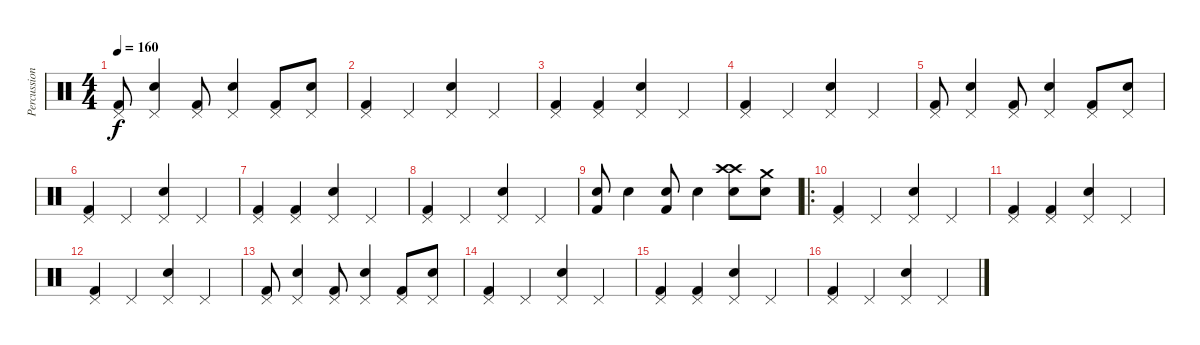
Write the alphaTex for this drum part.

\track ("Percussion" "Percussion") {instrument percussion}
\staff {score}
\articulation defaults
\ts (4 4)
\tempo 160
\clef neutral
\ks c
("Kick (hit) 2" "Pedal Hi-Hat (hit)").8{dy f} ("Snare (hit) 2" "Pedal Hi-Hat (hit)").4 ("Kick (hit) 2" "Pedal Hi-Hat (hit)").8 ("Snare (hit) 2" "Pedal Hi-Hat (hit)").4 ("Kick (hit) 2" "Pedal Hi-Hat (hit)").8 ("Snare (hit) 2" "Pedal Hi-Hat (hit)").8 |
("Kick (hit) 2" "Pedal Hi-Hat (hit)").4 "Pedal Hi-Hat (hit)".4 ("Snare (hit) 2" "Pedal Hi-Hat (hit)").4 "Pedal Hi-Hat (hit)".4 |
("Kick (hit) 2" "Pedal Hi-Hat (hit)").4 ("Kick (hit) 2" "Pedal Hi-Hat (hit)").4 ("Snare (hit) 2" "Pedal Hi-Hat (hit)").4 "Pedal Hi-Hat (hit)".4 |
("Kick (hit) 2" "Pedal Hi-Hat (hit)").4 "Pedal Hi-Hat (hit)".4 ("Snare (hit) 2" "Pedal Hi-Hat (hit)").4 "Pedal Hi-Hat (hit)".4 |
("Kick (hit) 2" "Pedal Hi-Hat (hit)").8 ("Snare (hit) 2" "Pedal Hi-Hat (hit)").4 ("Kick (hit) 2" "Pedal Hi-Hat (hit)").8 ("Snare (hit) 2" "Pedal Hi-Hat (hit)").4 ("Kick (hit) 2" "Pedal Hi-Hat (hit)").8 ("Snare (hit) 2" "Pedal Hi-Hat (hit)").8 |
("Kick (hit) 2" "Pedal Hi-Hat (hit)").4 "Pedal Hi-Hat (hit)".4 ("Snare (hit) 2" "Pedal Hi-Hat (hit)").4 "Pedal Hi-Hat (hit)".4 |
("Kick (hit) 2" "Pedal Hi-Hat (hit)").4 ("Kick (hit) 2" "Pedal Hi-Hat (hit)").4 ("Snare (hit) 2" "Pedal Hi-Hat (hit)").4 "Pedal Hi-Hat (hit)".4 |
("Kick (hit) 2" "Pedal Hi-Hat (hit)").4 "Pedal Hi-Hat (hit)".4 ("Snare (hit) 2" "Pedal Hi-Hat (hit)").4 "Pedal Hi-Hat (hit)".4 |
("Snare (hit) 2" "Kick (hit) 2").8 "Snare (hit) 2".4 ("Snare (hit) 2" "Kick (hit) 2").8 "Snare (hit) 2".4 ("Crash high (hit)" "Snare (hit) 2" "Crash high (hit)").8 ("Snare (hit) 2" "Crash medium (hit)").8 |
\ro
("Kick (hit) 2" "Pedal Hi-Hat (hit)").4 "Pedal Hi-Hat (hit)".4 ("Snare (hit) 2" "Pedal Hi-Hat (hit)").4 "Pedal Hi-Hat (hit)".4 |
("Kick (hit) 2" "Pedal Hi-Hat (hit)").4 ("Kick (hit) 2" "Pedal Hi-Hat (hit)").4 ("Snare (hit) 2" "Pedal Hi-Hat (hit)").4 "Pedal Hi-Hat (hit)".4 |
("Kick (hit) 2" "Pedal Hi-Hat (hit)").4 "Pedal Hi-Hat (hit)".4 ("Snare (hit) 2" "Pedal Hi-Hat (hit)").4 "Pedal Hi-Hat (hit)".4 |
("Kick (hit) 2" "Pedal Hi-Hat (hit)").8 ("Snare (hit) 2" "Pedal Hi-Hat (hit)").4 ("Kick (hit) 2" "Pedal Hi-Hat (hit)").8 ("Snare (hit) 2" "Pedal Hi-Hat (hit)").4 ("Kick (hit) 2" "Pedal Hi-Hat (hit)").8 ("Snare (hit) 2" "Pedal Hi-Hat (hit)").8 |
("Kick (hit) 2" "Pedal Hi-Hat (hit)").4 "Pedal Hi-Hat (hit)".4 ("Snare (hit) 2" "Pedal Hi-Hat (hit)").4 "Pedal Hi-Hat (hit)".4 |
("Kick (hit) 2" "Pedal Hi-Hat (hit)").4 ("Kick (hit) 2" "Pedal Hi-Hat (hit)").4 ("Snare (hit) 2" "Pedal Hi-Hat (hit)").4 "Pedal Hi-Hat (hit)".4 |
("Kick (hit) 2" "Pedal Hi-Hat (hit)").4 "Pedal Hi-Hat (hit)".4 ("Snare (hit) 2" "Pedal Hi-Hat (hit)").4 "Pedal Hi-Hat (hit)".4
